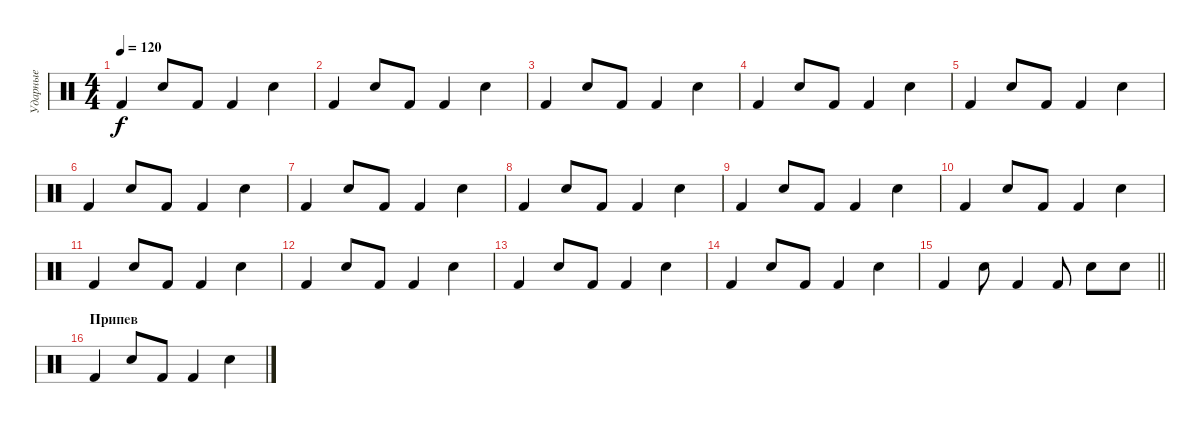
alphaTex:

\track ("Ударные" "Ударные") {instrument percussion}
\staff {score}
\articulation defaults
\ts (4 4)
\tempo 120
\clef neutral
\ks c "Kick (hit) 2".4{dy f} "Electric Snare (hit)".8 "Kick (hit) 2".8 "Kick (hit) 2".4 "Electric Snare (hit)".4
|
"Kick (hit) 2".4 "Electric Snare (hit)".8 "Kick (hit) 2".8 "Kick (hit) 2".4 "Electric Snare (hit)".4 |
"Kick (hit) 2".4 "Electric Snare (hit)".8 "Kick (hit) 2".8 "Kick (hit) 2".4 "Electric Snare (hit)".4 |
"Kick (hit) 2".4 "Electric Snare (hit)".8 "Kick (hit) 2".8 "Kick (hit) 2".4 "Electric Snare (hit)".4 |
"Kick (hit) 2".4 "Electric Snare (hit)".8 "Kick (hit) 2".8 "Kick (hit) 2".4 "Electric Snare (hit)".4 |
"Kick (hit) 2".4 "Electric Snare (hit)".8 "Kick (hit) 2".8 "Kick (hit) 2".4 "Electric Snare (hit)".4 |
"Kick (hit) 2".4 "Electric Snare (hit)".8 "Kick (hit) 2".8 "Kick (hit) 2".4 "Electric Snare (hit)".4 |
"Kick (hit) 2".4 "Electric Snare (hit)".8 "Kick (hit) 2".8 "Kick (hit) 2".4 "Electric Snare (hit)".4 |
"Kick (hit) 2".4 "Electric Snare (hit)".8 "Kick (hit) 2".8 "Kick (hit) 2".4 "Electric Snare (hit)".4 |
"Kick (hit) 2".4 "Electric Snare (hit)".8 "Kick (hit) 2".8 "Kick (hit) 2".4 "Electric Snare (hit)".4 |
"Kick (hit) 2".4 "Electric Snare (hit)".8 "Kick (hit) 2".8 "Kick (hit) 2".4 "Electric Snare (hit)".4 |
"Kick (hit) 2".4 "Electric Snare (hit)".8 "Kick (hit) 2".8 "Kick (hit) 2".4 "Electric Snare (hit)".4 |
"Kick (hit) 2".4 "Electric Snare (hit)".8 "Kick (hit) 2".8 "Kick (hit) 2".4 "Electric Snare (hit)".4 |
"Kick (hit) 2".4 "Electric Snare (hit)".8 "Kick (hit) 2".8 "Kick (hit) 2".4 "Electric Snare (hit)".4 |
\barLineRight lightlight "Kick (hit) 2".4 "Electric Snare (hit)".8 "Kick (hit) 2".4 "Kick (hit) 2".8 "Electric Snare (hit)".8 "Electric Snare (hit)".8
|
\section ("" "Припев")
"Kick (hit) 2".4 "Electric Snare (hit)".8 "Kick (hit) 2".8 "Kick (hit) 2".4 "Electric Snare (hit)".4
